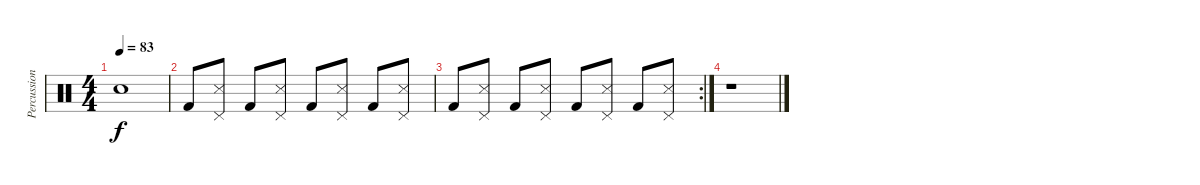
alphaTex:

\track ("Percussions" "Percussion") {instrument percussion}
\staff {score}
\articulation defaults
\ts (4 4)
\tempo 83
\clef neutral
\ks c "Electric Snare (hit)".1{dy f}
|
"Kick (hit) 2".8 ("Pedal Hi-Hat (hit)" "Snare (side stick) 3").8 "Kick (hit) 2".8 ("Pedal Hi-Hat (hit)" "Snare (side stick) 3").8 "Kick (hit) 2".8 ("Pedal Hi-Hat (hit)" "Snare (side stick) 3").8 "Kick (hit) 2".8 ("Pedal Hi-Hat (hit)" "Snare (side stick) 3").8 |
\rc 2 "Kick (hit) 2".8
("Pedal Hi-Hat (hit)" "Snare (side stick) 3").8 "Kick (hit) 2".8 ("Pedal Hi-Hat (hit)" "Snare (side stick) 3").8 "Kick (hit) 2".8 ("Pedal Hi-Hat (hit)" "Snare (side stick) 3").8 "Kick (hit) 2".8 ("Pedal Hi-Hat (hit)" "Snare (side stick) 3").8 |
r.1
